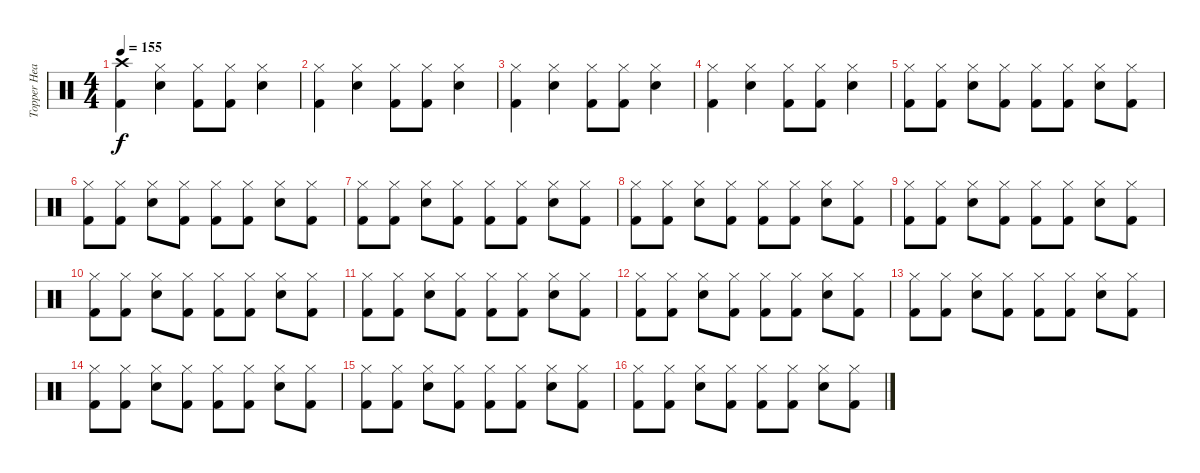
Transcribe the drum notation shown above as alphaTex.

\track ("Topper Headon - Drums" "Topper Hea") {instrument percussion}
\staff {score}
\articulation defaults
\ts (4 4)
\tempo 155
\clef neutral
\ks c
("Kick (hit) 2" "Crash high (hit)").4{dy f} ("Snare (hit) 2" "Hi-Hat (closed)").4 ("Kick (hit) 2" "Hi-Hat (closed)").8 ("Kick (hit) 2" "Hi-Hat (closed)").8 ("Snare (hit) 2" "Hi-Hat (closed)").4 |
("Kick (hit) 2" "Hi-Hat (closed)").4 ("Snare (hit) 2" "Hi-Hat (closed)").4 ("Kick (hit) 2" "Hi-Hat (closed)").8 ("Kick (hit) 2" "Hi-Hat (closed)").8 ("Snare (hit) 2" "Hi-Hat (closed)").4 |
("Kick (hit) 2" "Hi-Hat (closed)").4 ("Snare (hit) 2" "Hi-Hat (closed)").4 ("Kick (hit) 2" "Hi-Hat (closed)").8 ("Kick (hit) 2" "Hi-Hat (closed)").8 ("Snare (hit) 2" "Hi-Hat (closed)").4 |
("Kick (hit) 2" "Hi-Hat (closed)").4 ("Snare (hit) 2" "Hi-Hat (closed)").4 ("Kick (hit) 2" "Hi-Hat (closed)").8 ("Kick (hit) 2" "Hi-Hat (closed)").8 ("Snare (hit) 2" "Hi-Hat (closed)").4 |
("Kick (hit) 2" "Hi-Hat (closed)").8 ("Kick (hit) 2" "Hi-Hat (closed)").8 ("Snare (hit) 2" "Hi-Hat (closed)").8 ("Kick (hit) 2" "Hi-Hat (closed)").8 ("Kick (hit) 2" "Hi-Hat (closed)").8 ("Kick (hit) 2" "Hi-Hat (closed)").8 ("Snare (hit) 2" "Hi-Hat (closed)").8 ("Kick (hit) 2" "Hi-Hat (closed)").8 |
("Kick (hit) 2" "Hi-Hat (closed)").8 ("Kick (hit) 2" "Hi-Hat (closed)").8 ("Snare (hit) 2" "Hi-Hat (closed)").8 ("Kick (hit) 2" "Hi-Hat (closed)").8 ("Kick (hit) 2" "Hi-Hat (closed)").8 ("Kick (hit) 2" "Hi-Hat (closed)").8 ("Snare (hit) 2" "Hi-Hat (closed)").8 ("Kick (hit) 2" "Hi-Hat (closed)").8 |
("Kick (hit) 2" "Hi-Hat (closed)").8 ("Kick (hit) 2" "Hi-Hat (closed)").8 ("Snare (hit) 2" "Hi-Hat (closed)").8 ("Kick (hit) 2" "Hi-Hat (closed)").8 ("Kick (hit) 2" "Hi-Hat (closed)").8 ("Kick (hit) 2" "Hi-Hat (closed)").8 ("Snare (hit) 2" "Hi-Hat (closed)").8 ("Kick (hit) 2" "Hi-Hat (closed)").8 |
("Kick (hit) 2" "Hi-Hat (closed)").8 ("Kick (hit) 2" "Hi-Hat (closed)").8 ("Snare (hit) 2" "Hi-Hat (closed)").8 ("Kick (hit) 2" "Hi-Hat (closed)").8 ("Kick (hit) 2" "Hi-Hat (closed)").8 ("Kick (hit) 2" "Hi-Hat (closed)").8 ("Snare (hit) 2" "Hi-Hat (closed)").8 ("Kick (hit) 2" "Hi-Hat (closed)").8 |
("Kick (hit) 2" "Hi-Hat (closed)").8 ("Kick (hit) 2" "Hi-Hat (closed)").8 ("Snare (hit) 2" "Hi-Hat (closed)").8 ("Kick (hit) 2" "Hi-Hat (closed)").8 ("Kick (hit) 2" "Hi-Hat (closed)").8 ("Kick (hit) 2" "Hi-Hat (closed)").8 ("Snare (hit) 2" "Hi-Hat (closed)").8 ("Kick (hit) 2" "Hi-Hat (closed)").8 |
("Kick (hit) 2" "Hi-Hat (closed)").8 ("Kick (hit) 2" "Hi-Hat (closed)").8 ("Snare (hit) 2" "Hi-Hat (closed)").8 ("Kick (hit) 2" "Hi-Hat (closed)").8 ("Kick (hit) 2" "Hi-Hat (closed)").8 ("Kick (hit) 2" "Hi-Hat (closed)").8 ("Snare (hit) 2" "Hi-Hat (closed)").8 ("Kick (hit) 2" "Hi-Hat (closed)").8 |
("Kick (hit) 2" "Hi-Hat (closed)").8 ("Kick (hit) 2" "Hi-Hat (closed)").8 ("Snare (hit) 2" "Hi-Hat (closed)").8 ("Kick (hit) 2" "Hi-Hat (closed)").8 ("Kick (hit) 2" "Hi-Hat (closed)").8 ("Kick (hit) 2" "Hi-Hat (closed)").8 ("Snare (hit) 2" "Hi-Hat (closed)").8 ("Kick (hit) 2" "Hi-Hat (closed)").8 |
("Kick (hit) 2" "Hi-Hat (closed)").8 ("Kick (hit) 2" "Hi-Hat (closed)").8 ("Snare (hit) 2" "Hi-Hat (closed)").8 ("Kick (hit) 2" "Hi-Hat (closed)").8 ("Kick (hit) 2" "Hi-Hat (closed)").8 ("Kick (hit) 2" "Hi-Hat (closed)").8 ("Snare (hit) 2" "Hi-Hat (closed)").8 ("Kick (hit) 2" "Hi-Hat (closed)").8 |
("Kick (hit) 2" "Hi-Hat (closed)").8 ("Kick (hit) 2" "Hi-Hat (closed)").8 ("Snare (hit) 2" "Hi-Hat (closed)").8 ("Kick (hit) 2" "Hi-Hat (closed)").8 ("Kick (hit) 2" "Hi-Hat (closed)").8 ("Kick (hit) 2" "Hi-Hat (closed)").8 ("Snare (hit) 2" "Hi-Hat (closed)").8 ("Kick (hit) 2" "Hi-Hat (closed)").8 |
("Kick (hit) 2" "Hi-Hat (closed)").8 ("Kick (hit) 2" "Hi-Hat (closed)").8 ("Snare (hit) 2" "Hi-Hat (closed)").8 ("Kick (hit) 2" "Hi-Hat (closed)").8 ("Kick (hit) 2" "Hi-Hat (closed)").8 ("Kick (hit) 2" "Hi-Hat (closed)").8 ("Snare (hit) 2" "Hi-Hat (closed)").8 ("Kick (hit) 2" "Hi-Hat (closed)").8 |
("Kick (hit) 2" "Hi-Hat (closed)").8 ("Kick (hit) 2" "Hi-Hat (closed)").8 ("Snare (hit) 2" "Hi-Hat (closed)").8 ("Kick (hit) 2" "Hi-Hat (closed)").8 ("Kick (hit) 2" "Hi-Hat (closed)").8 ("Kick (hit) 2" "Hi-Hat (closed)").8 ("Snare (hit) 2" "Hi-Hat (closed)").8 ("Kick (hit) 2" "Hi-Hat (closed)").8 |
("Kick (hit) 2" "Hi-Hat (closed)").8 ("Kick (hit) 2" "Hi-Hat (closed)").8 ("Snare (hit) 2" "Hi-Hat (closed)").8 ("Kick (hit) 2" "Hi-Hat (closed)").8 ("Kick (hit) 2" "Hi-Hat (closed)").8 ("Kick (hit) 2" "Hi-Hat (closed)").8 ("Snare (hit) 2" "Hi-Hat (closed)").8 ("Kick (hit) 2" "Hi-Hat (closed)").8
